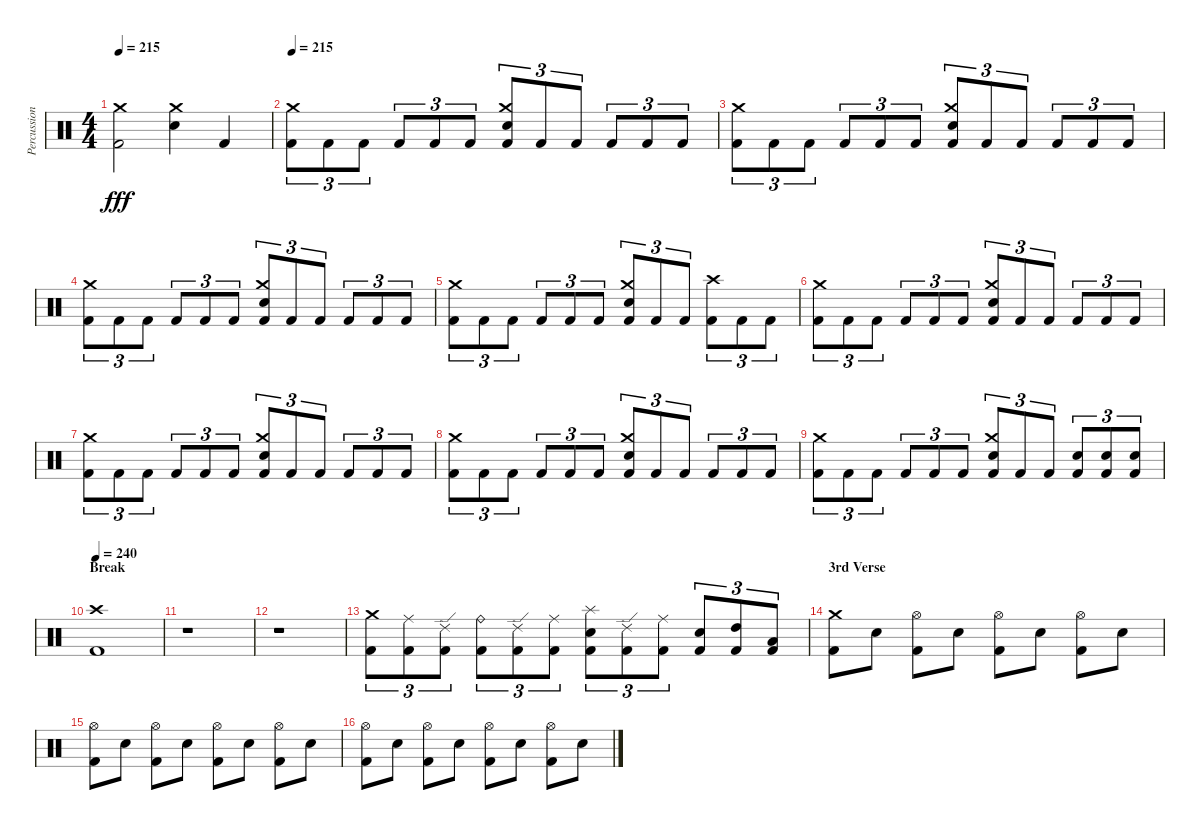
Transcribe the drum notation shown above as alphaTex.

\track ("Percussion" "Percussion") {instrument percussion}
\staff {score}
\articulation defaults
\ts (4 4)
\tempo 215
\clef neutral
\ks c
("Kick (hit) 2" "Crash medium (hit)").2{dy fff} ("Electric Snare (hit)" "Crash medium (hit)").4 "Kick (hit) 2".4 |
\tempo 215
("Kick (hit) 2" "Crash medium (hit)").8{tu (3 2)} "Kick (hit) 2".8{tu (3 2)} "Kick (hit) 2".8{tu (3 2)} "Kick (hit) 2".8{tu (3 2)} "Kick (hit) 2".8{tu (3 2)} "Kick (hit) 2".8{tu (3 2)} ("Kick (hit) 2" "Electric Snare (hit)" "Crash medium (hit)").8{tu (3 2)} "Kick (hit) 2".8{tu (3 2)} "Kick (hit) 2".8{tu (3 2)} "Kick (hit) 2".8{tu (3 2)} "Kick (hit) 2".8{tu (3 2)} "Kick (hit) 2".8{tu (3 2)} |
("Kick (hit) 2" "Crash medium (hit)").8{tu (3 2)} "Kick (hit) 2".8{tu (3 2)} "Kick (hit) 2".8{tu (3 2)} "Kick (hit) 2".8{tu (3 2)} "Kick (hit) 2".8{tu (3 2)} "Kick (hit) 2".8{tu (3 2)} ("Kick (hit) 2" "Electric Snare (hit)" "Crash medium (hit)").8{tu (3 2)} "Kick (hit) 2".8{tu (3 2)} "Kick (hit) 2".8{tu (3 2)} "Kick (hit) 2".8{tu (3 2)} "Kick (hit) 2".8{tu (3 2)} "Kick (hit) 2".8{tu (3 2)} |
("Kick (hit) 2" "Crash medium (hit)").8{tu (3 2)} "Kick (hit) 2".8{tu (3 2)} "Kick (hit) 2".8{tu (3 2)} "Kick (hit) 2".8{tu (3 2)} "Kick (hit) 2".8{tu (3 2)} "Kick (hit) 2".8{tu (3 2)} ("Kick (hit) 2" "Electric Snare (hit)" "Crash medium (hit)").8{tu (3 2)} "Kick (hit) 2".8{tu (3 2)} "Kick (hit) 2".8{tu (3 2)} "Kick (hit) 2".8{tu (3 2)} "Kick (hit) 2".8{tu (3 2)} "Kick (hit) 2".8{tu (3 2)} |
("Kick (hit) 2" "Crash medium (hit)").8{tu (3 2)} "Kick (hit) 2".8{tu (3 2)} "Kick (hit) 2".8{tu (3 2)} "Kick (hit) 2".8{tu (3 2)} "Kick (hit) 2".8{tu (3 2)} "Kick (hit) 2".8{tu (3 2)} ("Kick (hit) 2" "Electric Snare (hit)" "Crash medium (hit)").8{tu (3 2)} "Kick (hit) 2".8{tu (3 2)} "Kick (hit) 2".8{tu (3 2)} ("Kick (hit) 2" "Crash high (hit)").8{tu (3 2)} "Kick (hit) 2".8{tu (3 2)} "Kick (hit) 2".8{tu (3 2)} |
("Kick (hit) 2" "Crash medium (hit)").8{tu (3 2)} "Kick (hit) 2".8{tu (3 2)} "Kick (hit) 2".8{tu (3 2)} "Kick (hit) 2".8{tu (3 2)} "Kick (hit) 2".8{tu (3 2)} "Kick (hit) 2".8{tu (3 2)} ("Kick (hit) 2" "Electric Snare (hit)" "Crash medium (hit)").8{tu (3 2)} "Kick (hit) 2".8{tu (3 2)} "Kick (hit) 2".8{tu (3 2)} "Kick (hit) 2".8{tu (3 2)} "Kick (hit) 2".8{tu (3 2)} "Kick (hit) 2".8{tu (3 2)} |
("Kick (hit) 2" "Crash medium (hit)").8{tu (3 2)} "Kick (hit) 2".8{tu (3 2)} "Kick (hit) 2".8{tu (3 2)} "Kick (hit) 2".8{tu (3 2)} "Kick (hit) 2".8{tu (3 2)} "Kick (hit) 2".8{tu (3 2)} ("Kick (hit) 2" "Electric Snare (hit)" "Crash medium (hit)").8{tu (3 2)} "Kick (hit) 2".8{tu (3 2)} "Kick (hit) 2".8{tu (3 2)} "Kick (hit) 2".8{tu (3 2)} "Kick (hit) 2".8{tu (3 2)} "Kick (hit) 2".8{tu (3 2)} |
("Kick (hit) 2" "Crash medium (hit)").8{tu (3 2)} "Kick (hit) 2".8{tu (3 2)} "Kick (hit) 2".8{tu (3 2)} "Kick (hit) 2".8{tu (3 2)} "Kick (hit) 2".8{tu (3 2)} "Kick (hit) 2".8{tu (3 2)} ("Kick (hit) 2" "Electric Snare (hit)" "Crash medium (hit)").8{tu (3 2)} "Kick (hit) 2".8{tu (3 2)} "Kick (hit) 2".8{tu (3 2)} "Kick (hit) 2".8{tu (3 2)} "Kick (hit) 2".8{tu (3 2)} "Kick (hit) 2".8{tu (3 2)} |
("Kick (hit) 2" "Crash medium (hit)").8{tu (3 2)} "Kick (hit) 2".8{tu (3 2)} "Kick (hit) 2".8{tu (3 2)} "Kick (hit) 2".8{tu (3 2)} "Kick (hit) 2".8{tu (3 2)} "Kick (hit) 2".8{tu (3 2)} ("Kick (hit) 2" "Electric Snare (hit)" "Crash medium (hit)").8{tu (3 2)} "Kick (hit) 2".8{tu (3 2)} "Kick (hit) 2".8{tu (3 2)} ("Kick (hit) 2" "Electric Snare (hit)").8{tu (3 2)} ("Kick (hit) 2" "Electric Snare (hit)").8{tu (3 2)} ("Kick (hit) 2" "Electric Snare (hit)").8{tu (3 2)} |
\section ("" "Break")
\tempo 240
("Kick (hit) 2" "Crash high (hit)").1 |
r.1 |
r.1 |
("Kick (hit) 2" "Crash medium (hit)").8{tu (3 2)} ("Kick (hit) 2" "Ride (middle)").8{tu (3 2)} ("Kick (hit) 2" "Ride (edge) 2").8{tu (3 2)} ("Kick (hit) 2" "Ride (bell)").8{tu (3 2)} ("Kick (hit) 2" "Ride (edge) 2").8{tu (3 2)} ("Kick (hit) 2" "Ride (middle)").8{tu (3 2)} ("Kick (hit) 2" "Electric Snare (hit)" "Splash (hit)").8{tu (3 2)} ("Kick (hit) 2" "Ride (edge) 2").8{tu (3 2)} ("Kick (hit) 2" "Ride (middle)").8{tu (3 2)} ("Kick (hit) 2" "Electric Snare (hit)").8{tu (3 2)} ("Kick (hit) 2" "High Tom (hit)").8{tu (3 2)} ("Kick (hit) 2" "Low Tom (hit)").8{tu (3 2)} |
\section ("" "3rd Verse")
("Kick (hit) 2" "Crash medium (hit)").8 "Electric Snare (hit)".8 ("Kick (hit) 2" "Hi-Hat (open)").8 "Electric Snare (hit)".8 ("Kick (hit) 2" "Hi-Hat (open)").8 "Electric Snare (hit)".8 ("Kick (hit) 2" "Hi-Hat (open)").8 "Electric Snare (hit)".8 |
("Kick (hit) 2" "Hi-Hat (open)").8 "Electric Snare (hit)".8 ("Kick (hit) 2" "Hi-Hat (open)").8 "Electric Snare (hit)".8 ("Kick (hit) 2" "Hi-Hat (open)").8 "Electric Snare (hit)".8 ("Kick (hit) 2" "Hi-Hat (open)").8 "Electric Snare (hit)".8 |
("Kick (hit) 2" "Hi-Hat (open)").8 "Electric Snare (hit)".8 ("Kick (hit) 2" "Hi-Hat (open)").8 "Electric Snare (hit)".8 ("Kick (hit) 2" "Hi-Hat (open)").8 "Electric Snare (hit)".8 ("Kick (hit) 2" "Hi-Hat (open)").8 "Electric Snare (hit)".8
